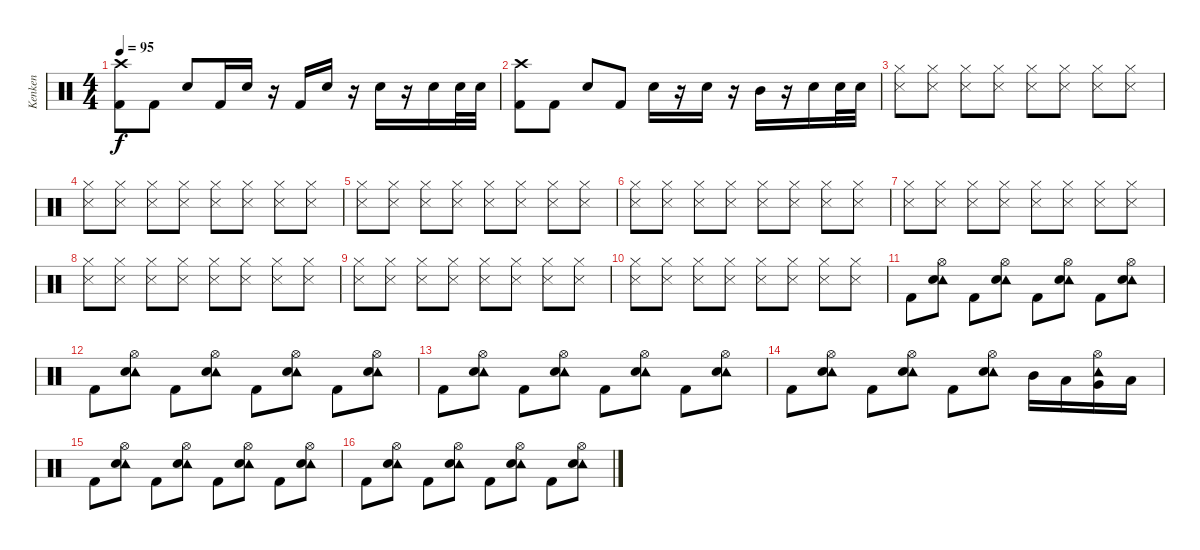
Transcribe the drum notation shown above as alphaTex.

\track ("Kenken" "Kenken") {instrument percussion}
\staff {score}
\articulation defaults
\ts (4 4)
\tempo 95
\clef neutral
\ks c
("Crash high (hit)" "Kick (hit) 2").8{dy f} "Kick (hit) 2".8 "Electric Snare (hit)".8 "Kick (hit) 2".16 "Electric Snare (hit)".16 r.16 "Kick (hit) 2".16 "Electric Snare (hit)".16 r.16 "Electric Snare (hit)".16 r.16 "Electric Snare (hit)".16 "Electric Snare (hit)".32 "Electric Snare (hit)".32 |
("Crash high (hit)" "Kick (hit) 2").8 "Kick (hit) 2".8 "Electric Snare (hit)".8 "Kick (hit) 2".8 "Electric Snare (hit)".16 r.16 "Electric Snare (hit)".16 r.16 "Mid Tom (hit)".16 r.16 "Electric Snare (hit)".16 "Electric Snare (hit)".32 "Electric Snare (hit)".32 |
("Hi-Hat (closed)" "Snare (side stick) 3").8 ("Hi-Hat (closed)" "Snare (side stick) 3").8 ("Hi-Hat (closed)" "Snare (side stick) 3").8 ("Hi-Hat (closed)" "Snare (side stick) 3").8 ("Hi-Hat (closed)" "Snare (side stick) 3").8 ("Hi-Hat (closed)" "Snare (side stick) 3").8 ("Hi-Hat (closed)" "Snare (side stick) 3").8 ("Hi-Hat (closed)" "Snare (side stick) 3").8 |
("Hi-Hat (closed)" "Snare (side stick) 3").8 ("Hi-Hat (closed)" "Snare (side stick) 3").8 ("Hi-Hat (closed)" "Snare (side stick) 3").8 ("Hi-Hat (closed)" "Snare (side stick) 3").8 ("Hi-Hat (closed)" "Snare (side stick) 3").8 ("Hi-Hat (closed)" "Snare (side stick) 3").8 ("Hi-Hat (closed)" "Snare (side stick) 3").8 ("Hi-Hat (closed)" "Snare (side stick) 3").8 |
("Hi-Hat (closed)" "Snare (side stick) 3").8 ("Hi-Hat (closed)" "Snare (side stick) 3").8 ("Hi-Hat (closed)" "Snare (side stick) 3").8 ("Hi-Hat (closed)" "Snare (side stick) 3").8 ("Hi-Hat (closed)" "Snare (side stick) 3").8 ("Hi-Hat (closed)" "Snare (side stick) 3").8 ("Hi-Hat (closed)" "Snare (side stick) 3").8 ("Hi-Hat (closed)" "Snare (side stick) 3").8 |
("Hi-Hat (closed)" "Snare (side stick) 3").8 ("Hi-Hat (closed)" "Snare (side stick) 3").8 ("Hi-Hat (closed)" "Snare (side stick) 3").8 ("Hi-Hat (closed)" "Snare (side stick) 3").8 ("Hi-Hat (closed)" "Snare (side stick) 3").8 ("Hi-Hat (closed)" "Snare (side stick) 3").8 ("Hi-Hat (closed)" "Snare (side stick) 3").8 ("Hi-Hat (closed)" "Snare (side stick) 3").8 |
("Hi-Hat (closed)" "Snare (side stick) 3").8 ("Hi-Hat (closed)" "Snare (side stick) 3").8 ("Hi-Hat (closed)" "Snare (side stick) 3").8 ("Hi-Hat (closed)" "Snare (side stick) 3").8 ("Hi-Hat (closed)" "Snare (side stick) 3").8 ("Hi-Hat (closed)" "Snare (side stick) 3").8 ("Hi-Hat (closed)" "Snare (side stick) 3").8 ("Hi-Hat (closed)" "Snare (side stick) 3").8 |
("Hi-Hat (closed)" "Snare (side stick) 3").8 ("Hi-Hat (closed)" "Snare (side stick) 3").8 ("Hi-Hat (closed)" "Snare (side stick) 3").8 ("Hi-Hat (closed)" "Snare (side stick) 3").8 ("Hi-Hat (closed)" "Snare (side stick) 3").8 ("Hi-Hat (closed)" "Snare (side stick) 3").8 ("Hi-Hat (closed)" "Snare (side stick) 3").8 ("Hi-Hat (closed)" "Snare (side stick) 3").8 |
("Hi-Hat (closed)" "Snare (side stick) 3").8 ("Hi-Hat (closed)" "Snare (side stick) 3").8 ("Hi-Hat (closed)" "Snare (side stick) 3").8 ("Hi-Hat (closed)" "Snare (side stick) 3").8 ("Hi-Hat (closed)" "Snare (side stick) 3").8 ("Hi-Hat (closed)" "Snare (side stick) 3").8 ("Hi-Hat (closed)" "Snare (side stick) 3").8 ("Hi-Hat (closed)" "Snare (side stick) 3").8 |
("Hi-Hat (closed)" "Snare (side stick) 3").8 ("Hi-Hat (closed)" "Snare (side stick) 3").8 ("Hi-Hat (closed)" "Snare (side stick) 3").8 ("Hi-Hat (closed)" "Snare (side stick) 3").8 ("Hi-Hat (closed)" "Snare (side stick) 3").8 ("Hi-Hat (closed)" "Snare (side stick) 3").8 ("Hi-Hat (closed)" "Snare (side stick) 3").8 ("Hi-Hat (closed)" "Snare (side stick) 3").8 |
"Kick (hit) 2".8 ("Hi-Hat (open)" "Tambourine (hit)" "Snare (hit) 2").8 "Kick (hit) 2".8 ("Hi-Hat (open)" "Tambourine (hit)" "Snare (hit) 2").8 "Kick (hit) 2".8 ("Hi-Hat (open)" "Tambourine (hit)" "Snare (hit) 2").8 "Kick (hit) 2".8 ("Hi-Hat (open)" "Tambourine (hit)" "Snare (hit) 2").8 |
"Kick (hit) 2".8 ("Hi-Hat (open)" "Tambourine (hit)" "Snare (hit) 2").8 "Kick (hit) 2".8 ("Hi-Hat (open)" "Tambourine (hit)" "Snare (hit) 2").8 "Kick (hit) 2".8 ("Hi-Hat (open)" "Tambourine (hit)" "Snare (hit) 2").8 "Kick (hit) 2".8 ("Hi-Hat (open)" "Tambourine (hit)" "Snare (hit) 2").8 |
"Kick (hit) 2".8 ("Hi-Hat (open)" "Tambourine (hit)" "Snare (hit) 2").8 "Kick (hit) 2".8 ("Hi-Hat (open)" "Tambourine (hit)" "Snare (hit) 2").8 "Kick (hit) 2".8 ("Hi-Hat (open)" "Tambourine (hit)" "Snare (hit) 2").8 "Kick (hit) 2".8 ("Hi-Hat (open)" "Tambourine (hit)" "Snare (hit) 2").8 |
"Kick (hit) 2".8 ("Hi-Hat (open)" "Tambourine (hit)" "Snare (hit) 2").8 "Kick (hit) 2".8 ("Hi-Hat (open)" "Tambourine (hit)" "Snare (hit) 2").8 "Kick (hit) 2".8 ("Hi-Hat (open)" "Tambourine (hit)" "Snare (hit) 2").8 "Mid Tom (hit)".16 "Low Tom (hit)".16 ("Hi-Hat (open)" "Tambourine (hit)" "Very Low Tom (hit)").16 "Low Floor Tom (hit)".16 |
"Kick (hit) 2".8 ("Hi-Hat (open)" "Tambourine (hit)" "Snare (hit) 2").8 "Kick (hit) 2".8 ("Hi-Hat (open)" "Tambourine (hit)" "Snare (hit) 2").8 "Kick (hit) 2".8 ("Hi-Hat (open)" "Tambourine (hit)" "Snare (hit) 2").8 "Kick (hit) 2".8 ("Hi-Hat (open)" "Tambourine (hit)" "Snare (hit) 2").8 |
"Kick (hit) 2".8 ("Hi-Hat (open)" "Tambourine (hit)" "Snare (hit) 2").8 "Kick (hit) 2".8 ("Hi-Hat (open)" "Tambourine (hit)" "Snare (hit) 2").8 "Kick (hit) 2".8 ("Hi-Hat (open)" "Tambourine (hit)" "Snare (hit) 2").8 "Kick (hit) 2".8 ("Hi-Hat (open)" "Tambourine (hit)" "Snare (hit) 2").8
